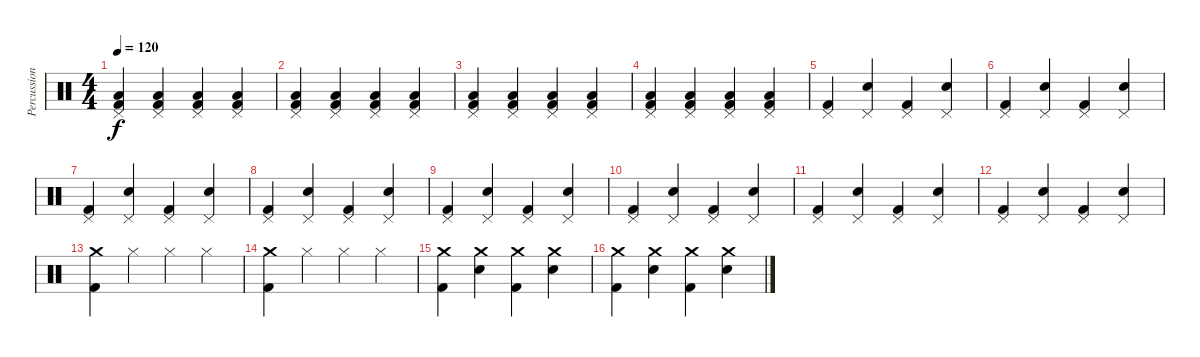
\track ("Percussions" "Percussion") {instrument percussion}
\staff {score}
\articulation defaults
\ts (4 4)
\tempo 120
\clef neutral
\ks c
("Pedal Hi-Hat (hit)" "Low Floor Tom (hit)" "Kick (hit) 2").4{dy f} ("Pedal Hi-Hat (hit)" "Low Floor Tom (hit)" "Kick (hit) 2").4 ("Pedal Hi-Hat (hit)" "Low Floor Tom (hit)" "Kick (hit) 2").4 ("Pedal Hi-Hat (hit)" "Low Floor Tom (hit)" "Kick (hit) 2").4 |
("Pedal Hi-Hat (hit)" "Low Floor Tom (hit)" "Kick (hit) 2").4 ("Pedal Hi-Hat (hit)" "Low Floor Tom (hit)" "Kick (hit) 2").4 ("Pedal Hi-Hat (hit)" "Low Floor Tom (hit)" "Kick (hit) 2").4 ("Pedal Hi-Hat (hit)" "Low Floor Tom (hit)" "Kick (hit) 2").4 |
("Pedal Hi-Hat (hit)" "Low Floor Tom (hit)" "Kick (hit) 2").4 ("Pedal Hi-Hat (hit)" "Low Floor Tom (hit)" "Kick (hit) 2").4 ("Pedal Hi-Hat (hit)" "Low Floor Tom (hit)" "Kick (hit) 2").4 ("Pedal Hi-Hat (hit)" "Low Floor Tom (hit)" "Kick (hit) 2").4 |
("Pedal Hi-Hat (hit)" "Low Floor Tom (hit)" "Kick (hit) 2").4 ("Pedal Hi-Hat (hit)" "Low Floor Tom (hit)" "Kick (hit) 2").4 ("Pedal Hi-Hat (hit)" "Low Floor Tom (hit)" "Kick (hit) 2").4 ("Pedal Hi-Hat (hit)" "Low Floor Tom (hit)" "Kick (hit) 2").4 |
("Pedal Hi-Hat (hit)" "Kick (hit) 2").4 ("Pedal Hi-Hat (hit)" "Snare (hit) 2").4 ("Pedal Hi-Hat (hit)" "Kick (hit) 2").4 ("Pedal Hi-Hat (hit)" "Snare (hit) 2").4 |
("Pedal Hi-Hat (hit)" "Kick (hit) 2").4 ("Pedal Hi-Hat (hit)" "Snare (hit) 2").4 ("Pedal Hi-Hat (hit)" "Kick (hit) 2").4 ("Pedal Hi-Hat (hit)" "Snare (hit) 2").4 |
("Pedal Hi-Hat (hit)" "Kick (hit) 2").4 ("Pedal Hi-Hat (hit)" "Snare (hit) 2").4 ("Pedal Hi-Hat (hit)" "Kick (hit) 2").4 ("Pedal Hi-Hat (hit)" "Snare (hit) 2").4 |
("Pedal Hi-Hat (hit)" "Kick (hit) 2").4 ("Pedal Hi-Hat (hit)" "Snare (hit) 2").4 ("Pedal Hi-Hat (hit)" "Kick (hit) 2").4 ("Pedal Hi-Hat (hit)" "Snare (hit) 2").4 |
("Pedal Hi-Hat (hit)" "Kick (hit) 2").4 ("Pedal Hi-Hat (hit)" "Snare (hit) 2").4 ("Pedal Hi-Hat (hit)" "Kick (hit) 2").4 ("Pedal Hi-Hat (hit)" "Snare (hit) 2").4 |
("Pedal Hi-Hat (hit)" "Kick (hit) 2").4 ("Pedal Hi-Hat (hit)" "Snare (hit) 2").4 ("Pedal Hi-Hat (hit)" "Kick (hit) 2").4 ("Pedal Hi-Hat (hit)" "Snare (hit) 2").4 |
("Pedal Hi-Hat (hit)" "Kick (hit) 2").4 ("Pedal Hi-Hat (hit)" "Snare (hit) 2").4 ("Pedal Hi-Hat (hit)" "Kick (hit) 2").4 ("Pedal Hi-Hat (hit)" "Snare (hit) 2").4 |
("Pedal Hi-Hat (hit)" "Kick (hit) 2").4 ("Pedal Hi-Hat (hit)" "Snare (hit) 2").4 ("Pedal Hi-Hat (hit)" "Kick (hit) 2").4 ("Pedal Hi-Hat (hit)" "Snare (hit) 2").4 |
("Crash medium (hit)" "Kick (hit) 2").4 "Hi-Hat (closed)".4 "Hi-Hat (closed)".4 "Hi-Hat (closed)".4 |
("Crash medium (hit)" "Kick (hit) 2").4 "Hi-Hat (closed)".4 "Hi-Hat (closed)".4 "Hi-Hat (closed)".4 |
("Crash medium (hit)" "Kick (hit) 2").4 ("Crash medium (hit)" "Snare (hit) 2").4 ("Crash medium (hit)" "Kick (hit) 2").4 ("Crash medium (hit)" "Snare (hit) 2").4 |
("Crash medium (hit)" "Kick (hit) 2").4 ("Crash medium (hit)" "Snare (hit) 2").4 ("Crash medium (hit)" "Kick (hit) 2").4 ("Crash medium (hit)" "Snare (hit) 2").4
